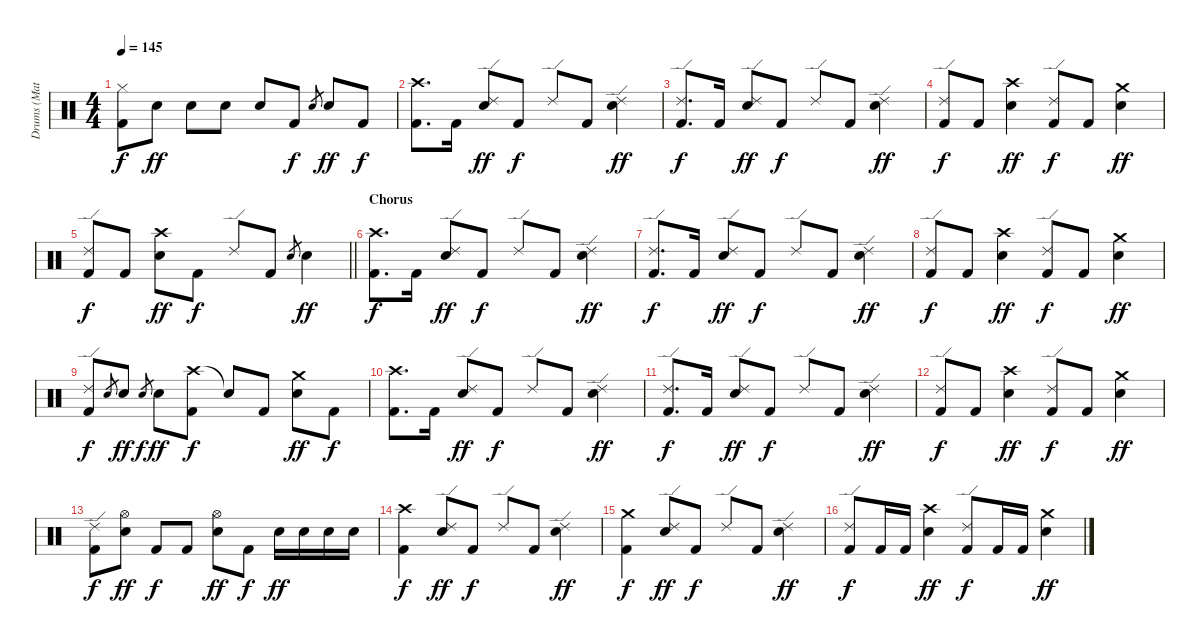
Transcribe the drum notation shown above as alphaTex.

\track ("Drums (Matt)" "Drums (Mat") {instrument percussion}
\staff {score}
\articulation defaults
\ts (4 4)
\tempo 145
\clef neutral
\ks c
("Hi-Hat (closed)" "Kick (hit) 2").8{dy f} "Snare (hit) 2".8{dy ff} "Snare (hit) 2".8 "Snare (hit) 2".8 "Snare (hit) 2".8 "Kick (hit) 2".8{dy f} "Snare (hit) 2".8{gr} "Snare (hit) 2".8{dy ff} "Kick (hit) 2".8{dy f} |
("Crash high (hit)" "Kick (hit) 2").8{d} "Kick (hit) 2".16 ("Ride (edge) 2" "Snare (hit) 2").8{dy ff} "Kick (hit) 2".8{dy f} "Ride (edge) 2".8 "Kick (hit) 2".8 ("Ride (edge) 2" "Snare (hit) 2").4{dy ff} |
("Ride (edge) 2" "Kick (hit) 2").8{d dy f} "Kick (hit) 2".16 ("Ride (edge) 2" "Snare (hit) 2").8{dy ff} "Kick (hit) 2".8{dy f} "Ride (edge) 2".8 "Kick (hit) 2".8 ("Ride (edge) 2" "Snare (hit) 2").4{dy ff} |
("Ride (edge) 2" "Kick (hit) 2").8{dy f} "Kick (hit) 2".8 ("Crash high (hit)" "Snare (hit) 2").4{dy ff} ("Ride (edge) 2" "Kick (hit) 2").8{dy f} "Kick (hit) 2".8 ("Crash medium (hit)" "Snare (hit) 2").4{dy ff} |
\barLineRight lightlight
("Ride (edge) 2" "Kick (hit) 2").8{dy f} "Kick (hit) 2".8 ("Crash high (hit)" "Snare (hit) 2").8{dy ff} "Kick (hit) 2".8{dy f} "Ride (edge) 2".8 "Kick (hit) 2".8 "Snare (hit) 2".8{gr} "Snare (hit) 2".4{dy ff} |
\section ("" "Chorus")
("Crash high (hit)" "Kick (hit) 2").8{d dy f} "Kick (hit) 2".16 ("Ride (edge) 2" "Snare (hit) 2").8{dy ff} "Kick (hit) 2".8{dy f} "Ride (edge) 2".8 "Kick (hit) 2".8 ("Ride (edge) 2" "Snare (hit) 2").4{dy ff} |
("Ride (edge) 2" "Kick (hit) 2").8{d dy f} "Kick (hit) 2".16 ("Ride (edge) 2" "Snare (hit) 2").8{dy ff} "Kick (hit) 2".8{dy f} "Ride (edge) 2".8 "Kick (hit) 2".8 ("Ride (edge) 2" "Snare (hit) 2").4{dy ff} |
("Ride (edge) 2" "Kick (hit) 2").8{dy f} "Kick (hit) 2".8 ("Crash high (hit)" "Snare (hit) 2").4{dy ff} ("Ride (edge) 2" "Kick (hit) 2").8{dy f} "Kick (hit) 2".8 ("Crash medium (hit)" "Snare (hit) 2").4{dy ff} |
("Ride (edge) 2" "Kick (hit) 2").8{dy f} "Snare (hit) 2".8{gr} "Snare (hit) 2".8{dy ff} "Snare (hit) 2".8{gr dy f} "Snare (hit) 2".8{dy ff} ("Crash high (hit)" "Kick (hit) 2").8{dy f} "Snare (hit)"{t}.8 "Kick (hit) 2".8 ("Crash medium (hit)" "Snare (hit) 2").8{dy ff} "Kick (hit) 2".8{dy f} |
("Crash high (hit)" "Kick (hit) 2").8{d} "Kick (hit) 2".16 ("Ride (edge) 2" "Snare (hit) 2").8{dy ff} "Kick (hit) 2".8{dy f} "Ride (edge) 2".8 "Kick (hit) 2".8 ("Ride (edge) 2" "Snare (hit) 2").4{dy ff} |
("Ride (edge) 2" "Kick (hit) 2").8{d dy f} "Kick (hit) 2".16 ("Ride (edge) 2" "Snare (hit) 2").8{dy ff} "Kick (hit) 2".8{dy f} "Ride (edge) 2".8 "Kick (hit) 2".8 ("Ride (edge) 2" "Snare (hit) 2").4{dy ff} |
("Ride (edge) 2" "Kick (hit) 2").8{dy f} "Kick (hit) 2".8 ("Crash high (hit)" "Snare (hit) 2").4{dy ff} ("Ride (edge) 2" "Kick (hit) 2").8{dy f} "Kick (hit) 2".8 ("Crash medium (hit)" "Snare (hit) 2").4{dy ff} |
("Ride (edge) 2" "Kick (hit) 2").8{dy f} ("Hi-Hat (open)" "Snare (hit) 2").8{dy ff} "Kick (hit) 2".8{dy f} "Kick (hit) 2".8 ("Hi-Hat (open)" "Snare (hit) 2").8{dy ff} "Kick (hit) 2".8{dy f} "Snare (hit) 2".16{dy ff} "Snare (hit) 2".16 "Snare (hit) 2".16 "Snare (hit) 2".16 |
("Crash high (hit)" "Kick (hit) 2").4{dy f} ("Ride (edge) 2" "Snare (hit) 2").8{dy ff} "Kick (hit) 2".8{dy f} "Ride (edge) 2".8 "Kick (hit) 2".8 ("Ride (edge) 2" "Snare (hit) 2").4{dy ff} |
("Crash medium (hit)" "Kick (hit) 2").4{dy f} ("Ride (edge) 2" "Snare (hit) 2").8{dy ff} "Kick (hit) 2".8{dy f} "Ride (edge) 2".8 "Kick (hit) 2".8 ("Ride (edge) 2" "Snare (hit) 2").4{dy ff} |
("Ride (edge) 2" "Kick (hit) 2").8{dy f} "Kick (hit) 2".16 "Kick (hit) 2".16 ("Crash high (hit)" "Snare (hit) 2").4{dy ff} ("Ride (edge) 2" "Kick (hit) 2").8{dy f} "Kick (hit) 2".16 "Kick (hit) 2".16 ("Crash medium (hit)" "Snare (hit) 2").4{dy ff}
